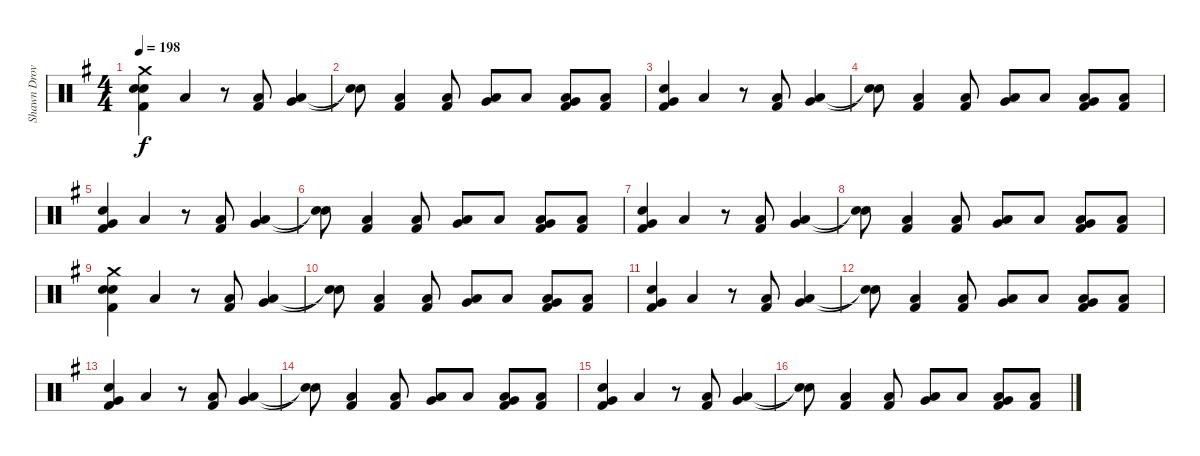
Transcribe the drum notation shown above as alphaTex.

\track ("Shawn Drover" "Shawn Drov") {instrument percussion}
\staff {score}
\articulation defaults
\ts (4 4)
\tempo 198
\clef neutral
\ks g
("Crash medium (hit)" "Snare (hit) 2" "Snare (hit) 2" "Kick (hit) 2").4{dy f} "Low Floor Tom (hit)".4 r.8 ("Low Floor Tom (hit)" "Kick (hit) 2").8 ("Low Floor Tom (hit)" "Very Low Tom (hit)").4 |
("Snare (hit)"{t} "Snare (hit)"{t}).8 ("Low Floor Tom (hit)" "Kick (hit) 2").4 ("Low Floor Tom (hit)" "Kick (hit) 2").8 ("Very Low Tom (hit)" "Low Floor Tom (hit)").8 "Low Floor Tom (hit)".8 ("Very Low Tom (hit)" "Low Floor Tom (hit)" "Kick (hit) 2").8 ("Low Tom (hit)" "Kick (hit) 2").8 |
("Snare (hit) 2" "Very Low Tom (hit)" "Kick (hit) 2").4 "Low Floor Tom (hit)".4 r.8 ("Low Floor Tom (hit)" "Kick (hit) 2").8 ("Low Floor Tom (hit)" "Very Low Tom (hit)").4 |
("Snare (hit)"{t} "Snare (hit)"{t}).8 ("Low Floor Tom (hit)" "Kick (hit) 2").4 ("Low Floor Tom (hit)" "Kick (hit) 2").8 ("Very Low Tom (hit)" "Low Floor Tom (hit)").8 "Low Floor Tom (hit)".8 ("Very Low Tom (hit)" "Low Floor Tom (hit)" "Kick (hit) 2").8 ("Low Tom (hit)" "Kick (hit) 2").8 |
("Snare (hit) 2" "Very Low Tom (hit)" "Kick (hit) 2").4 "Low Floor Tom (hit)".4 r.8 ("Low Floor Tom (hit)" "Kick (hit) 2").8 ("Low Floor Tom (hit)" "Very Low Tom (hit)").4 |
("Snare (hit)"{t} "Snare (hit)"{t}).8 ("Low Floor Tom (hit)" "Kick (hit) 2").4 ("Low Floor Tom (hit)" "Kick (hit) 2").8 ("Very Low Tom (hit)" "Low Floor Tom (hit)").8 "Low Floor Tom (hit)".8 ("Very Low Tom (hit)" "Low Floor Tom (hit)" "Kick (hit) 2").8 ("Low Tom (hit)" "Kick (hit) 2").8 |
("Snare (hit) 2" "Very Low Tom (hit)" "Kick (hit) 2").4 "Low Floor Tom (hit)".4 r.8 ("Low Floor Tom (hit)" "Kick (hit) 2").8 ("Low Floor Tom (hit)" "Very Low Tom (hit)").4 |
("Snare (hit)"{t} "Snare (hit)"{t}).8 ("Low Floor Tom (hit)" "Kick (hit) 2").4 ("Low Floor Tom (hit)" "Kick (hit) 2").8 ("Very Low Tom (hit)" "Low Floor Tom (hit)").8 "Low Floor Tom (hit)".8 ("Very Low Tom (hit)" "Low Floor Tom (hit)" "Kick (hit) 2").8 ("Low Tom (hit)" "Kick (hit) 2").8 |
("Crash medium (hit)" "Snare (hit) 2" "Snare (hit) 2" "Kick (hit) 2").4 "Low Floor Tom (hit)".4 r.8 ("Low Floor Tom (hit)" "Kick (hit) 2").8 ("Low Floor Tom (hit)" "Very Low Tom (hit)").4 |
("Snare (hit)"{t} "Snare (hit)"{t}).8 ("Low Floor Tom (hit)" "Kick (hit) 2").4 ("Low Floor Tom (hit)" "Kick (hit) 2").8 ("Very Low Tom (hit)" "Low Floor Tom (hit)").8 "Low Floor Tom (hit)".8 ("Very Low Tom (hit)" "Low Floor Tom (hit)" "Kick (hit) 2").8 ("Low Tom (hit)" "Kick (hit) 2").8 |
("Snare (hit) 2" "Very Low Tom (hit)" "Kick (hit) 2").4 "Low Floor Tom (hit)".4 r.8 ("Low Floor Tom (hit)" "Kick (hit) 2").8 ("Low Floor Tom (hit)" "Very Low Tom (hit)").4 |
("Snare (hit)"{t} "Snare (hit)"{t}).8 ("Low Floor Tom (hit)" "Kick (hit) 2").4 ("Low Floor Tom (hit)" "Kick (hit) 2").8 ("Very Low Tom (hit)" "Low Floor Tom (hit)").8 "Low Floor Tom (hit)".8 ("Very Low Tom (hit)" "Low Floor Tom (hit)" "Kick (hit) 2").8 ("Low Tom (hit)" "Kick (hit) 2").8 |
("Snare (hit) 2" "Very Low Tom (hit)" "Kick (hit) 2").4 "Low Floor Tom (hit)".4 r.8 ("Low Floor Tom (hit)" "Kick (hit) 2").8 ("Low Floor Tom (hit)" "Very Low Tom (hit)").4 |
("Snare (hit)"{t} "Snare (hit)"{t}).8 ("Low Floor Tom (hit)" "Kick (hit) 2").4 ("Low Floor Tom (hit)" "Kick (hit) 2").8 ("Very Low Tom (hit)" "Low Floor Tom (hit)").8 "Low Floor Tom (hit)".8 ("Very Low Tom (hit)" "Low Floor Tom (hit)" "Kick (hit) 2").8 ("Low Tom (hit)" "Kick (hit) 2").8 |
("Snare (hit) 2" "Very Low Tom (hit)" "Kick (hit) 2").4 "Low Floor Tom (hit)".4 r.8 ("Low Floor Tom (hit)" "Kick (hit) 2").8 ("Low Floor Tom (hit)" "Very Low Tom (hit)").4 |
("Snare (hit)"{t} "Snare (hit)"{t}).8 ("Low Floor Tom (hit)" "Kick (hit) 2").4 ("Low Floor Tom (hit)" "Kick (hit) 2").8 ("Very Low Tom (hit)" "Low Floor Tom (hit)").8 "Low Floor Tom (hit)".8 ("Very Low Tom (hit)" "Low Floor Tom (hit)" "Kick (hit) 2").8 ("Low Tom (hit)" "Kick (hit) 2").8
